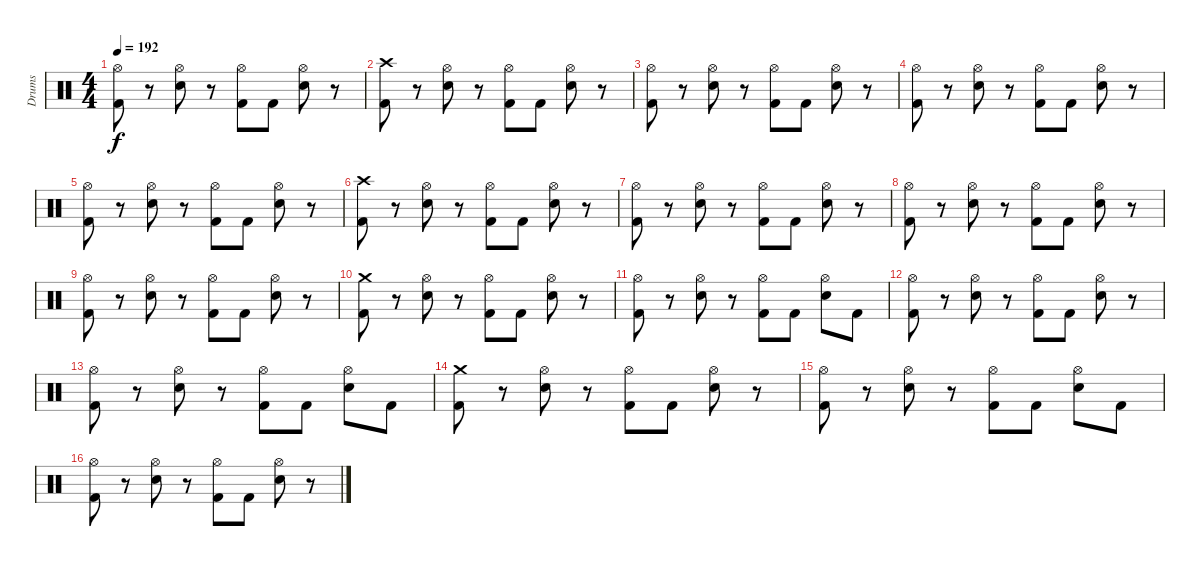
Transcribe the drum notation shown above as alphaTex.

\track ("Drums" "Drums") {instrument percussion}
\staff {score}
\articulation defaults
\ts (4 4)
\tempo 192
\clef neutral
\ks c
("Hi-Hat (open)" "Kick (hit) 2").8{dy f} r.8 ("Hi-Hat (open)" "Electric Snare (hit)").8 r.8 ("Hi-Hat (open)" "Kick (hit) 2").8 "Kick (hit) 2".8 ("Hi-Hat (open)" "Electric Snare (hit)").8 r.8 |
("Crash high (hit)" "Kick (hit) 2").8 r.8 ("Hi-Hat (open)" "Electric Snare (hit)").8 r.8 ("Hi-Hat (open)" "Kick (hit) 2").8 "Kick (hit) 2".8 ("Hi-Hat (open)" "Electric Snare (hit)").8 r.8 |
("Hi-Hat (open)" "Kick (hit) 2").8 r.8 ("Hi-Hat (open)" "Electric Snare (hit)").8 r.8 ("Hi-Hat (open)" "Kick (hit) 2").8 "Kick (hit) 2".8 ("Hi-Hat (open)" "Electric Snare (hit)").8 r.8 |
("Hi-Hat (open)" "Kick (hit) 2").8 r.8 ("Hi-Hat (open)" "Electric Snare (hit)").8 r.8 ("Hi-Hat (open)" "Kick (hit) 2").8 "Kick (hit) 2".8 ("Hi-Hat (open)" "Electric Snare (hit)").8 r.8 |
("Hi-Hat (open)" "Kick (hit) 2").8 r.8 ("Hi-Hat (open)" "Electric Snare (hit)").8 r.8 ("Hi-Hat (open)" "Kick (hit) 2").8 "Kick (hit) 2".8 ("Hi-Hat (open)" "Electric Snare (hit)").8 r.8 |
("Crash high (hit)" "Kick (hit) 2").8 r.8 ("Hi-Hat (open)" "Electric Snare (hit)").8 r.8 ("Hi-Hat (open)" "Kick (hit) 2").8 "Kick (hit) 2".8 ("Hi-Hat (open)" "Electric Snare (hit)").8 r.8 |
("Hi-Hat (open)" "Kick (hit) 2").8 r.8 ("Hi-Hat (open)" "Electric Snare (hit)").8 r.8 ("Hi-Hat (open)" "Kick (hit) 2").8 "Kick (hit) 2".8 ("Hi-Hat (open)" "Electric Snare (hit)").8 r.8 |
("Hi-Hat (open)" "Kick (hit) 2").8 r.8 ("Hi-Hat (open)" "Electric Snare (hit)").8 r.8 ("Hi-Hat (open)" "Kick (hit) 2").8 "Kick (hit) 2".8 ("Hi-Hat (open)" "Electric Snare (hit)").8 r.8 |
("Hi-Hat (open)" "Kick (hit) 2").8 r.8 ("Hi-Hat (open)" "Electric Snare (hit)").8 r.8 ("Hi-Hat (open)" "Kick (hit) 2").8 "Kick (hit) 2".8 ("Hi-Hat (open)" "Electric Snare (hit)").8 r.8 |
("Crash medium (hit)" "Kick (hit) 2").8 r.8 ("Hi-Hat (open)" "Electric Snare (hit)").8 r.8 ("Hi-Hat (open)" "Kick (hit) 2").8 "Kick (hit) 2".8 ("Hi-Hat (open)" "Electric Snare (hit)").8 r.8 |
("Hi-Hat (open)" "Kick (hit) 2").8 r.8 ("Hi-Hat (open)" "Electric Snare (hit)").8 r.8 ("Hi-Hat (open)" "Kick (hit) 2").8 "Kick (hit) 2".8 ("Hi-Hat (open)" "Electric Snare (hit)").8 "Kick (hit) 2".8 |
("Hi-Hat (open)" "Kick (hit) 2").8 r.8 ("Hi-Hat (open)" "Electric Snare (hit)").8 r.8 ("Hi-Hat (open)" "Kick (hit) 2").8 "Kick (hit) 2".8 ("Hi-Hat (open)" "Electric Snare (hit)").8 r.8 |
("Hi-Hat (open)" "Kick (hit) 2").8 r.8 ("Hi-Hat (open)" "Electric Snare (hit)").8 r.8 ("Hi-Hat (open)" "Kick (hit) 2").8 "Kick (hit) 2".8 ("Hi-Hat (open)" "Electric Snare (hit)").8 "Kick (hit) 2".8 |
("Crash medium (hit)" "Kick (hit) 2").8 r.8 ("Hi-Hat (open)" "Electric Snare (hit)").8 r.8 ("Hi-Hat (open)" "Kick (hit) 2").8 "Kick (hit) 2".8 ("Hi-Hat (open)" "Electric Snare (hit)").8 r.8 |
("Hi-Hat (open)" "Kick (hit) 2").8 r.8 ("Hi-Hat (open)" "Electric Snare (hit)").8 r.8 ("Hi-Hat (open)" "Kick (hit) 2").8 "Kick (hit) 2".8 ("Hi-Hat (open)" "Electric Snare (hit)").8 "Kick (hit) 2".8 |
("Hi-Hat (open)" "Kick (hit) 2").8 r.8 ("Hi-Hat (open)" "Electric Snare (hit)").8 r.8 ("Hi-Hat (open)" "Kick (hit) 2").8 "Kick (hit) 2".8 ("Hi-Hat (open)" "Electric Snare (hit)").8 r.8
